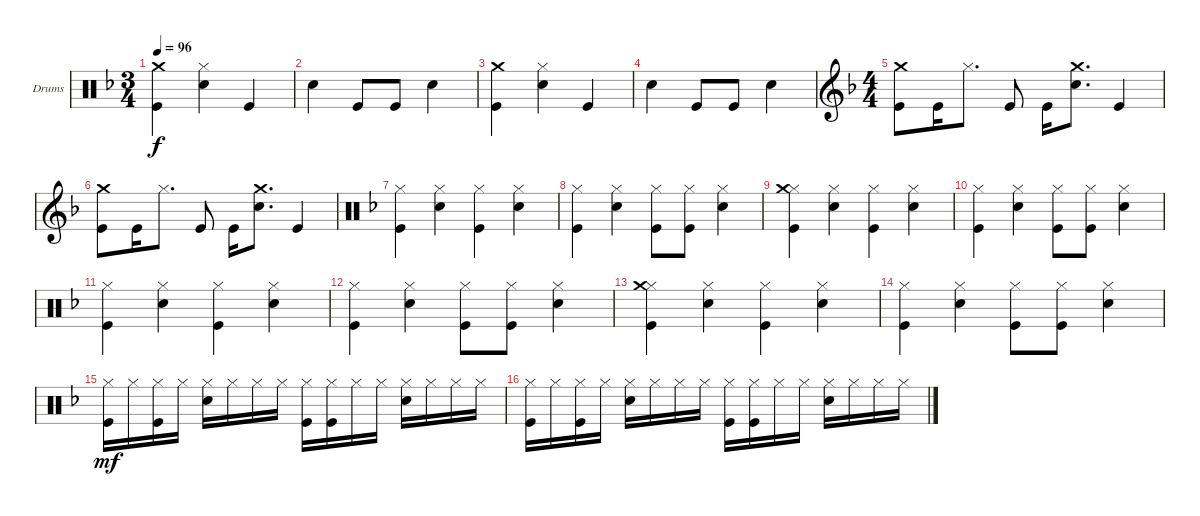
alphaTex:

\defaultSystemsLayout 4
\bracketExtendMode groupsimilarinstruments
\firstSystemTrackNameOrientation horizontal
\otherSystemsTrackNameOrientation horizontal
\track ("Drumkit" "Drums") {instrument percussion}
\staff {score}
\articulation defaults
\ts (3 4)
\tempo 96
\clef neutral
\scale
0.333333
\ks dminor
("Kick (hit)" "Crash medium (hit)").4{dy f} ("Snare (hit) 2" "Hi-Hat (closed)").4 "Kick (hit)".4 |
\scale
0.333333 "Snare (hit) 2".4 "Kick (hit)".8 "Kick (hit)".8 "Snare (hit) 2".4 |
\scale
0.333333 ("Kick (hit)" "Crash medium (hit)").4 ("Snare (hit) 2" "Hi-Hat (closed)").4 "Kick (hit)".4 |
\scale
0.333333 "Snare (hit) 2".4 "Kick (hit)".8 "Kick (hit)".8 "Snare (hit) 2".4 |
\ts (4 4)
\clef g2
\scale
0.333333 ("Kick (hit)" "Crash medium (hit)").8 "Kick (hit)".16 "Hi-Hat (closed)".8{d} "Kick (hit)".8 "Kick (hit)".16 ("Snare (hit) 2" "Crash medium (hit)").8{d} "Kick (hit)".4 |
\scale
0.333333 ("Kick (hit)" "Crash medium (hit)").8 "Kick (hit)".16 "Hi-Hat (closed)".8{d} "Kick (hit)".8 "Kick (hit)".16 ("Snare (hit) 2" "Crash medium (hit)").8{d} "Kick (hit)".4 |
\clef neutral
\scale
0.333333 ("Kick (hit)" "Hi-Hat (closed)").4 ("Snare (hit) 2" "Hi-Hat (closed)").4 ("Kick (hit)" "Hi-Hat (closed)").4 ("Hi-Hat (closed)" "Snare (hit) 2").4 |
\scale
0.333333 ("Kick (hit)" "Hi-Hat (closed)").4 ("Snare (hit) 2" "Hi-Hat (closed)").4 ("Kick (hit)" "Hi-Hat (closed)").8 ("Hi-Hat (closed)" "Kick (hit)").8 ("Snare (hit) 2" "Hi-Hat (closed)").4 |
\scale
0.333333 ("Kick (hit)" "Hi-Hat (closed)" "Crash medium (hit)").4 ("Snare (hit) 2" "Hi-Hat (closed)").4 ("Kick (hit)" "Hi-Hat (closed)").4 ("Hi-Hat (closed)" "Snare (hit) 2").4 |
\scale
0.333333 ("Kick (hit)" "Hi-Hat (closed)").4 ("Snare (hit) 2" "Hi-Hat (closed)").4 ("Kick (hit)" "Hi-Hat (closed)").8 ("Hi-Hat (closed)" "Kick (hit)").8 ("Snare (hit) 2" "Hi-Hat (closed)").4 |
\scale
0.333333 ("Kick (hit)" "Hi-Hat (closed)").4 ("Snare (hit) 2" "Hi-Hat (closed)").4 ("Kick (hit)" "Hi-Hat (closed)").4 ("Hi-Hat (closed)" "Snare (hit) 2").4 |
\scale
0.333333 ("Kick (hit)" "Hi-Hat (closed)").4 ("Snare (hit) 2" "Hi-Hat (closed)").4 ("Kick (hit)" "Hi-Hat (closed)").8 ("Hi-Hat (closed)" "Kick (hit)").8 ("Snare (hit) 2" "Hi-Hat (closed)").4 |
\scale
0.333333 ("Kick (hit)" "Hi-Hat (closed)" "Crash medium (hit)").4 ("Snare (hit) 2" "Hi-Hat (closed)").4 ("Kick (hit)" "Hi-Hat (closed)").4 ("Hi-Hat (closed)" "Snare (hit) 2").4 |
\scale
0.333333 ("Kick (hit)" "Hi-Hat (closed)").4 ("Snare (hit) 2" "Hi-Hat (closed)").4 ("Kick (hit)" "Hi-Hat (closed)").8 ("Hi-Hat (closed)" "Kick (hit)").8 ("Snare (hit) 2" "Hi-Hat (closed)").4 |
\scale
0.333333 ("Hi-Hat (closed)" "Kick (hit)").16{dy mf} "Hi-Hat (closed)".16 ("Hi-Hat (closed)" "Kick (hit)").16 "Hi-Hat (closed)".16 ("Hi-Hat (closed)" "Snare (hit) 2").16 "Hi-Hat (closed)".16 "Hi-Hat (closed)".16 "Hi-Hat (closed)".16 ("Kick (hit)" "Hi-Hat (closed)").16 ("Kick (hit)" "Hi-Hat (closed)").16 "Hi-Hat (closed)".16 "Hi-Hat (closed)".16 ("Hi-Hat (closed)" "Snare (hit) 2").16 "Hi-Hat (closed)".16 "Hi-Hat (closed)".16 "Hi-Hat (closed)".16 |
\scale
0.333333 ("Hi-Hat (closed)" "Kick (hit)").16 "Hi-Hat (closed)".16 ("Hi-Hat (closed)" "Kick (hit)").16 "Hi-Hat (closed)".16 ("Hi-Hat (closed)" "Snare (hit) 2").16 "Hi-Hat (closed)".16 "Hi-Hat (closed)".16 "Hi-Hat (closed)".16 ("Kick (hit)" "Hi-Hat (closed)").16 ("Kick (hit)" "Hi-Hat (closed)").16 "Hi-Hat (closed)".16 "Hi-Hat (closed)".16 ("Hi-Hat (closed)" "Snare (hit) 2").16 "Hi-Hat (closed)".16 "Hi-Hat (closed)".16 "Hi-Hat (closed)".16
